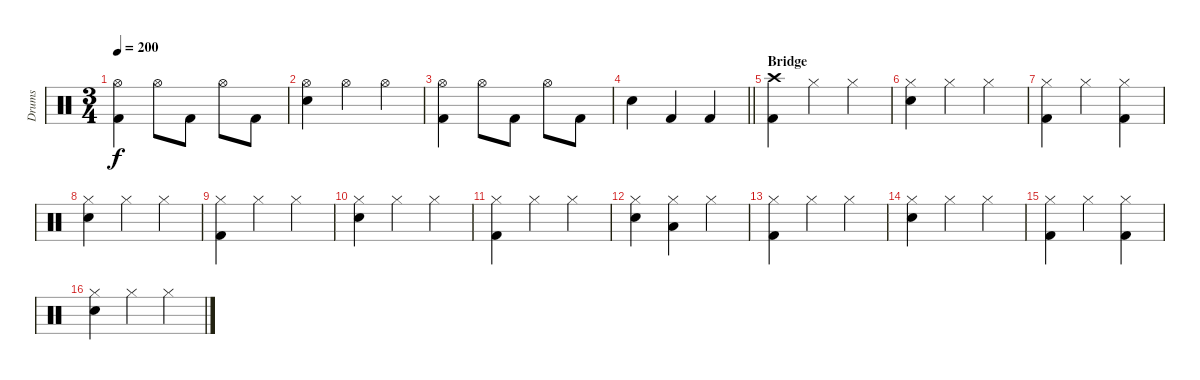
\track ("Drums" "Drums") {instrument percussion}
\staff {score}
\articulation defaults
\ts (3 4)
\tempo 200
\clef neutral
\ks c
("Hi-Hat (open)" "Kick (hit) 2").4{dy f} "Hi-Hat (open)".8 "Kick (hit) 2".8 "Hi-Hat (open)".8 "Kick (hit) 2".8 |
("Hi-Hat (open)" "Electric Snare (hit)").4 "Hi-Hat (open)".4 "Hi-Hat (open)".4 |
("Hi-Hat (open)" "Kick (hit) 2").4 "Hi-Hat (open)".8 "Kick (hit) 2".8 "Hi-Hat (open)".8 "Kick (hit) 2".8 |
\barLineRight lightlight "Electric Snare (hit)".4 "Kick (hit) 2".4 "Kick (hit) 2".4
|
\section ("" "Bridge")
("Crash high (hit)" "Kick (hit) 2").4 "Hi-Hat (closed)".4 "Hi-Hat (closed)".4 |
("Hi-Hat (closed)" "Electric Snare (hit)").4 "Hi-Hat (closed)".4 "Hi-Hat (closed)".4 |
("Hi-Hat (closed)" "Kick (hit) 2").4 "Hi-Hat (closed)".4 ("Hi-Hat (closed)" "Kick (hit) 2").4 |
("Hi-Hat (closed)" "Electric Snare (hit)").4 "Hi-Hat (closed)".4 "Hi-Hat (closed)".4 |
("Hi-Hat (closed)" "Kick (hit) 2").4 "Hi-Hat (closed)".4 "Hi-Hat (closed)".4 |
("Hi-Hat (closed)" "Electric Snare (hit)").4 "Hi-Hat (closed)".4 "Hi-Hat (closed)".4 |
("Hi-Hat (closed)" "Kick (hit) 2").4 "Hi-Hat (closed)".4 "Hi-Hat (closed)".4 |
("Hi-Hat (closed)" "Electric Snare (hit)").4 ("Hi-Hat (closed)" "Low Floor Tom (hit)").4 "Hi-Hat (closed)".4 |
("Hi-Hat (closed)" "Kick (hit) 2").4 "Hi-Hat (closed)".4 "Hi-Hat (closed)".4 |
("Hi-Hat (closed)" "Electric Snare (hit)").4 "Hi-Hat (closed)".4 "Hi-Hat (closed)".4 |
("Hi-Hat (closed)" "Kick (hit) 2").4 "Hi-Hat (closed)".4 ("Hi-Hat (closed)" "Kick (hit) 2").4 |
("Hi-Hat (closed)" "Electric Snare (hit)").4 "Hi-Hat (closed)".4 "Hi-Hat (closed)".4
